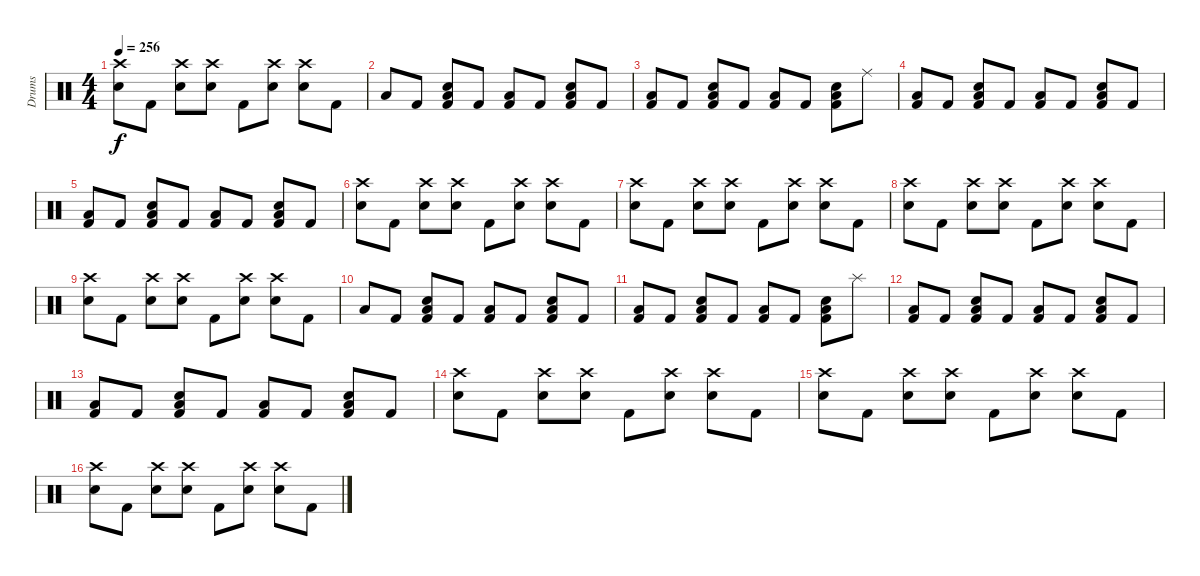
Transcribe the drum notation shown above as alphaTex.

\track ("Drums" "Drums") {instrument percussion}
\staff {score}
\articulation defaults
\ts (4 4)
\tempo 256
\clef neutral
\ks c
("Crash high (hit)" "Electric Snare (hit)").8{dy f} "Kick (hit) 2".8 ("Crash high (hit)" "Electric Snare (hit)").8 ("Crash high (hit)" "Electric Snare (hit)").8 "Kick (hit) 2".8 ("Crash high (hit)" "Electric Snare (hit)").8 ("Crash high (hit)" "Electric Snare (hit)").8 "Kick (hit) 2".8 |
"Low Tom (hit)".8 "Kick (hit) 2".8 ("Low Tom (hit)" "Electric Snare (hit)" "Kick (hit) 2").8 "Kick (hit) 2".8 ("Low Tom (hit)" "Kick (hit) 2").8 "Kick (hit) 2".8 ("Low Tom (hit)" "Electric Snare (hit)" "Kick (hit) 2").8 "Kick (hit) 2".8 |
("Low Tom (hit)" "Kick (hit) 2").8 "Kick (hit) 2".8 ("Low Tom (hit)" "Electric Snare (hit)" "Kick (hit) 2").8 "Kick (hit) 2".8 ("Low Tom (hit)" "Kick (hit) 2").8 "Kick (hit) 2".8 ("Low Tom (hit)" "Electric Snare (hit)" "Kick (hit) 2").8 "Ride (middle)".8 |
("Low Tom (hit)" "Kick (hit) 2").8 "Kick (hit) 2".8 ("Low Tom (hit)" "Electric Snare (hit)" "Kick (hit) 2").8 "Kick (hit) 2".8 ("Low Tom (hit)" "Kick (hit) 2").8 "Kick (hit) 2".8 ("Low Tom (hit)" "Electric Snare (hit)" "Kick (hit) 2").8 "Kick (hit) 2".8 |
("Low Tom (hit)" "Kick (hit) 2").8 "Kick (hit) 2".8 ("Low Tom (hit)" "Electric Snare (hit)" "Kick (hit) 2").8 "Kick (hit) 2".8 ("Low Tom (hit)" "Kick (hit) 2").8 "Kick (hit) 2".8 ("Low Tom (hit)" "Electric Snare (hit)" "Kick (hit) 2").8 "Kick (hit) 2".8 |
("Crash high (hit)" "Electric Snare (hit)").8 "Kick (hit) 2".8 ("Crash high (hit)" "Electric Snare (hit)").8 ("Crash high (hit)" "Electric Snare (hit)").8 "Kick (hit) 2".8 ("Crash high (hit)" "Electric Snare (hit)").8 ("Crash high (hit)" "Electric Snare (hit)").8 "Kick (hit) 2".8 |
("Crash high (hit)" "Electric Snare (hit)").8 "Kick (hit) 2".8 ("Crash high (hit)" "Electric Snare (hit)").8 ("Crash high (hit)" "Electric Snare (hit)").8 "Kick (hit) 2".8 ("Crash high (hit)" "Electric Snare (hit)").8 ("Crash high (hit)" "Electric Snare (hit)").8 "Kick (hit) 2".8 |
("Crash high (hit)" "Electric Snare (hit)").8 "Kick (hit) 2".8 ("Crash high (hit)" "Electric Snare (hit)").8 ("Crash high (hit)" "Electric Snare (hit)").8 "Kick (hit) 2".8 ("Crash high (hit)" "Electric Snare (hit)").8 ("Crash high (hit)" "Electric Snare (hit)").8 "Kick (hit) 2".8 |
("Crash high (hit)" "Electric Snare (hit)").8 "Kick (hit) 2".8 ("Crash high (hit)" "Electric Snare (hit)").8 ("Crash high (hit)" "Electric Snare (hit)").8 "Kick (hit) 2".8 ("Crash high (hit)" "Electric Snare (hit)").8 ("Crash high (hit)" "Electric Snare (hit)").8 "Kick (hit) 2".8 |
"Low Tom (hit)".8 "Kick (hit) 2".8 ("Low Tom (hit)" "Electric Snare (hit)" "Kick (hit) 2").8 "Kick (hit) 2".8 ("Low Tom (hit)" "Kick (hit) 2").8 "Kick (hit) 2".8 ("Low Tom (hit)" "Electric Snare (hit)" "Kick (hit) 2").8 "Kick (hit) 2".8 |
("Low Tom (hit)" "Kick (hit) 2").8 "Kick (hit) 2".8 ("Low Tom (hit)" "Electric Snare (hit)" "Kick (hit) 2").8 "Kick (hit) 2".8 ("Low Tom (hit)" "Kick (hit) 2").8 "Kick (hit) 2".8 ("Low Tom (hit)" "Electric Snare (hit)" "Kick (hit) 2").8 "Splash (hit)".8 |
("Low Tom (hit)" "Kick (hit) 2").8 "Kick (hit) 2".8 ("Low Tom (hit)" "Electric Snare (hit)" "Kick (hit) 2").8 "Kick (hit) 2".8 ("Low Tom (hit)" "Kick (hit) 2").8 "Kick (hit) 2".8 ("Low Tom (hit)" "Electric Snare (hit)" "Kick (hit) 2").8 "Kick (hit) 2".8 |
("Low Tom (hit)" "Kick (hit) 2").8 "Kick (hit) 2".8 ("Low Tom (hit)" "Electric Snare (hit)" "Kick (hit) 2").8 "Kick (hit) 2".8 ("Low Tom (hit)" "Kick (hit) 2").8 "Kick (hit) 2".8 ("Low Tom (hit)" "Electric Snare (hit)" "Kick (hit) 2").8 "Kick (hit) 2".8 |
("Crash high (hit)" "Electric Snare (hit)").8 "Kick (hit) 2".8 ("Crash high (hit)" "Electric Snare (hit)").8 ("Crash high (hit)" "Electric Snare (hit)").8 "Kick (hit) 2".8 ("Crash high (hit)" "Electric Snare (hit)").8 ("Crash high (hit)" "Electric Snare (hit)").8 "Kick (hit) 2".8 |
("Crash high (hit)" "Electric Snare (hit)").8 "Kick (hit) 2".8 ("Crash high (hit)" "Electric Snare (hit)").8 ("Crash high (hit)" "Electric Snare (hit)").8 "Kick (hit) 2".8 ("Crash high (hit)" "Electric Snare (hit)").8 ("Crash high (hit)" "Electric Snare (hit)").8 "Kick (hit) 2".8 |
("Crash high (hit)" "Electric Snare (hit)").8 "Kick (hit) 2".8 ("Crash high (hit)" "Electric Snare (hit)").8 ("Crash high (hit)" "Electric Snare (hit)").8 "Kick (hit) 2".8 ("Crash high (hit)" "Electric Snare (hit)").8 ("Crash high (hit)" "Electric Snare (hit)").8 "Kick (hit) 2".8
